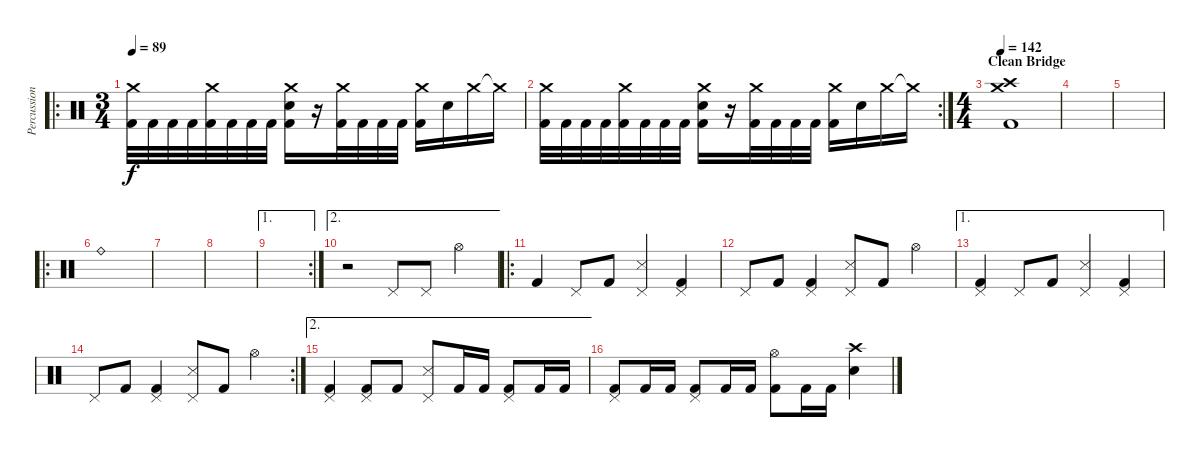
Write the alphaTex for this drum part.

\track ("Percussion" "Percussion") {instrument percussion}
\staff {score}
\articulation defaults
\ro
\ts (3 4)
\tempo 89
\clef neutral
\ks c
("Crash medium (hit)" "Kick (hit) 2").32{dy f} "Kick (hit) 2".32 "Kick (hit) 2".32 "Kick (hit) 2".32 ("Crash medium (hit)" "Kick (hit) 2").32 "Kick (hit) 2".32 "Kick (hit) 2".32 "Kick (hit) 2".32 ("Crash medium (hit)" "Electric Snare (hit)" "Kick (hit) 2").16 r.16 ("Crash medium (hit)" "Kick (hit) 2").32 "Kick (hit) 2".32 "Kick (hit) 2".32 "Kick (hit) 2".32 ("Crash medium (hit)" "Kick (hit) 2").16 "Electric Snare (hit)".16 "Crash medium (hit)".16 "Crash medium (hit)"{t}.16 |
\rc 2
("Crash medium (hit)" "Kick (hit) 2").32 "Kick (hit) 2".32 "Kick (hit) 2".32 "Kick (hit) 2".32 ("Crash medium (hit)" "Kick (hit) 2").32 "Kick (hit) 2".32 "Kick (hit) 2".32 "Kick (hit) 2".32 ("Crash medium (hit)" "Electric Snare (hit)" "Kick (hit) 2").16 r.16 ("Crash medium (hit)" "Kick (hit) 2").32 "Kick (hit) 2".32 "Kick (hit) 2".32 "Kick (hit) 2".32 ("Crash medium (hit)" "Kick (hit) 2").16 "Electric Snare (hit)".16 "Crash medium (hit)".16 "Crash medium (hit)"{t}.16 |
\ts (4 4)
\section ("" "Clean Bridge")
\tempo 142
("Crash medium (hit)" "Crash high (hit)" "Kick (hit) 2").1 |
|
|
\ro
\section ("" "")
"Ride (bell)".1{volume 14} |
|
|
\ae 1
\rc 2
|
\ae 2
r.2 "Pedal Hi-Hat (hit)".8 "Pedal Hi-Hat (hit)".8 "Hi-Hat (open)".4 |
\ro "Kick (hit) 2".4 "Pedal Hi-Hat (hit)".8 "Kick (hit) 2".8
("Pedal Hi-Hat (hit)" "Snare (side stick) 3").4 ("Pedal Hi-Hat (hit)" "Kick (hit) 2").4 |
"Pedal Hi-Hat (hit)".8 "Kick (hit) 2".8 ("Pedal Hi-Hat (hit)" "Kick (hit) 2").4 ("Pedal Hi-Hat (hit)" "Snare (side stick) 3").8 "Kick (hit) 2".8 "Hi-Hat (open)".4 |
\ae 1
("Pedal Hi-Hat (hit)" "Kick (hit) 2").4 "Pedal Hi-Hat (hit)".8 "Kick (hit) 2".8 ("Pedal Hi-Hat (hit)" "Snare (side stick) 3").4 ("Pedal Hi-Hat (hit)" "Kick (hit) 2").4 |
\rc 2 "Pedal Hi-Hat (hit)".8 "Kick (hit) 2".8
("Pedal Hi-Hat (hit)" "Kick (hit) 2").4 ("Pedal Hi-Hat (hit)" "Snare (side stick) 3").8 "Kick (hit) 2".8 "Hi-Hat (open)".4 |
\ae 2
("Pedal Hi-Hat (hit)" "Kick (hit) 2").4 ("Pedal Hi-Hat (hit)" "Kick (hit) 2").8 "Kick (hit) 2".8 ("Pedal Hi-Hat (hit)" "Snare (side stick) 3").8 "Kick (hit) 2".16 "Kick (hit) 2".16 ("Pedal Hi-Hat (hit)" "Kick (hit) 2").8 "Kick (hit) 2".16 "Kick (hit) 2".16 |
("Pedal Hi-Hat (hit)" "Kick (hit) 2").8 "Kick (hit) 2".16 "Kick (hit) 2".16 ("Pedal Hi-Hat (hit)" "Kick (hit) 2").8 "Kick (hit) 2".16 "Kick (hit) 2".16 ("Hi-Hat (open)" "Kick (hit) 2").8 "Kick (hit) 2".16 "Kick (hit) 2".16 ("Crash high (hit)" "Electric Snare (hit)").4
